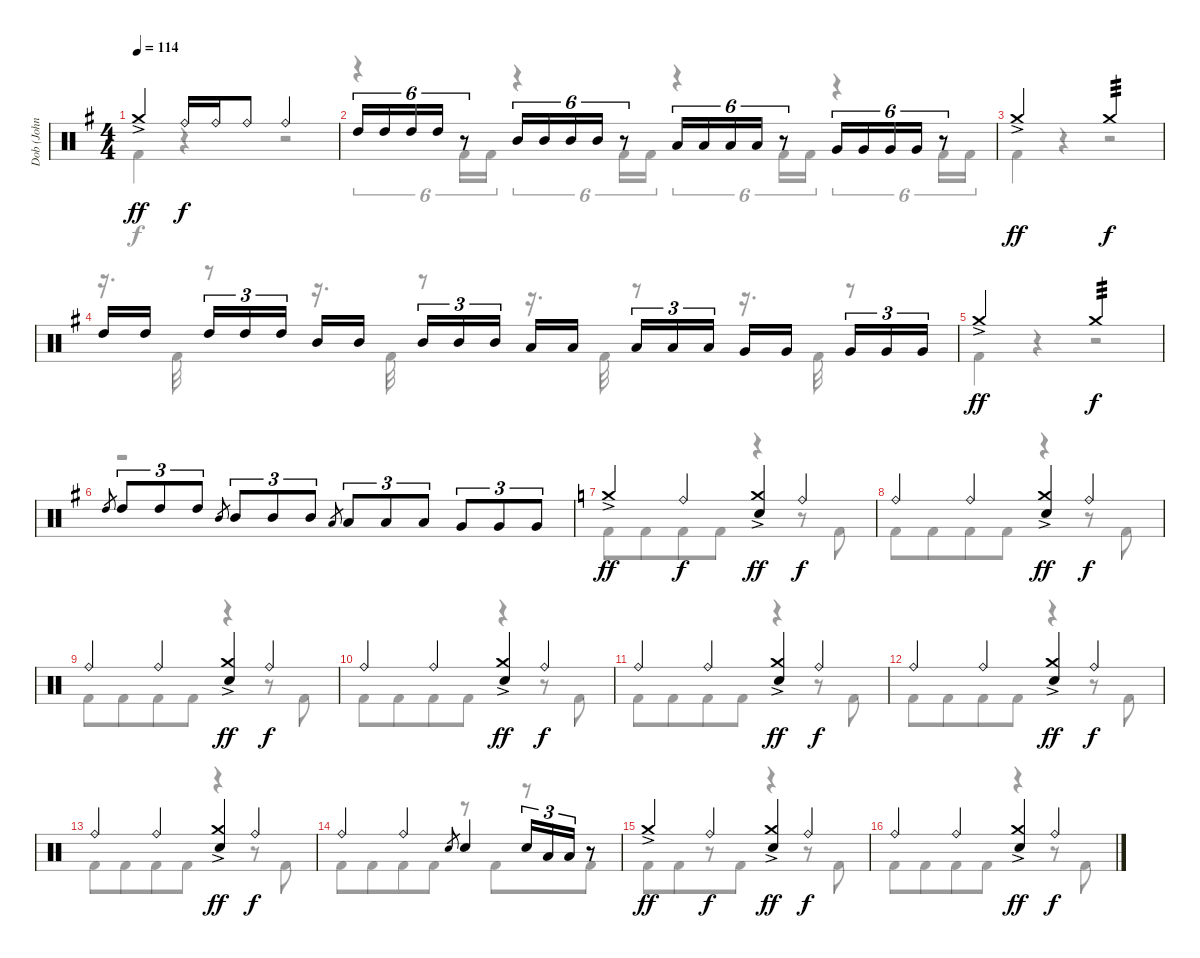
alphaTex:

\track ("Dob (John Macaluso)" "Dob (John ") {instrument percussion}
\staff {score}
\articulation defaults
\voice
\ts (4 4)
\tempo 114
\clef neutral
\ks g "Crash medium (hit)"{ac}.4{dy ff} "Ride (bell)".16{dy f} "Ride (bell)".16 "Ride (bell)".8 "Ride (bell)".2
|
"High Tom (hit)".16{tu (6 4)} "High Tom (hit)".16{tu (6 4)} "High Tom (hit)".16{tu (6 4)} "High Tom (hit)".16{tu (6 4)} r.8{tu (6 4)} "Mid Tom (hit)".16{tu (6 4)} "Mid Tom (hit)".16{tu (6 4)} "Mid Tom (hit)".16{tu (6 4)} "Mid Tom (hit)".16{tu (6 4)} r.8{tu (6 4)} "Low Tom (hit)".16{tu (6 4)} "Low Tom (hit)".16{tu (6 4)} "Low Tom (hit)".16{tu (6 4)} "Low Tom (hit)".16{tu (6 4)} r.8{tu (6 4)} "Very Low Tom (hit)".16{tu (6 4)} "Very Low Tom (hit)".16{tu (6 4)} "Very Low Tom (hit)".16{tu (6 4)} "Very Low Tom (hit)".16{tu (6 4)} r.8{tu (6 4)} |
"Crash medium (hit)"{ac}.2{dy ff} "Crash medium (hit)".2{tp 3 dy f} |
"High Tom (hit)".16 "High Tom (hit)".16{beam splitsecondary} "High Tom (hit)".16{tu (3 2)} "High Tom (hit)".16{tu (3 2)} "High Tom (hit)".16{tu (3 2)} "Mid Tom (hit)".16 "Mid Tom (hit)".16{beam splitsecondary} "Mid Tom (hit)".16{tu (3 2)} "Mid Tom (hit)".16{tu (3 2)} "Mid Tom (hit)".16{tu (3 2)} "Low Tom (hit)".16 "Low Tom (hit)".16{beam splitsecondary} "Low Tom (hit)".16{tu (3 2)} "Low Tom (hit)".16{tu (3 2)} "Low Tom (hit)".16{tu (3 2)} "Very Low Tom (hit)".16 "Very Low Tom (hit)".16{beam splitsecondary} "Very Low Tom (hit)".16{tu (3 2)} "Very Low Tom (hit)".16{tu (3 2)} "Very Low Tom (hit)".16{tu (3 2)} |
"Crash medium (hit)"{ac}.2{dy ff} "Crash medium (hit)".2{tp 3 dy f} |
"High Tom (hit)".8{gr} "High Tom (hit)".8{tu (3 2)} "High Tom (hit)".8{tu (3 2)} "High Tom (hit)".8{tu (3 2)} "Mid Tom (hit)".8{gr} "Mid Tom (hit)".8{tu (3 2)} "Mid Tom (hit)".8{tu (3 2)} "Mid Tom (hit)".8{tu (3 2)} "Low Tom (hit)".8{gr} "Low Tom (hit)".8{tu (3 2)} "Low Tom (hit)".8{tu (3 2)} "Low Tom (hit)".8{tu (3 2)} "Very Low Tom (hit)".8{tu (3 2)} "Very Low Tom (hit)".8{tu (3 2)} "Very Low Tom (hit)".8{tu (3 2)} |
\ks c "Crash medium (hit)"{ac}.4{dy ff} "Ride (bell)".4{dy f}
("Crash medium (hit)"{ac} "Electric Snare (hit)").4{dy ff} "Ride (bell)".4{dy f} |
"Ride (bell)".4 "Ride (bell)".4 ("Crash medium (hit)"{ac} "Electric Snare (hit)").4{dy ff} "Ride (bell)".4{dy f} |
"Ride (bell)".4 "Ride (bell)".4 ("Crash medium (hit)"{ac} "Electric Snare (hit)").4{dy ff} "Ride (bell)".4{dy f} |
"Ride (bell)".4 "Ride (bell)".4 ("Crash medium (hit)"{ac} "Electric Snare (hit)").4{dy ff} "Ride (bell)".4{dy f} |
"Ride (bell)".4 "Ride (bell)".4 ("Crash medium (hit)"{ac} "Electric Snare (hit)").4{dy ff} "Ride (bell)".4{dy f} |
"Ride (bell)".4 "Ride (bell)".4 ("Crash medium (hit)"{ac} "Electric Snare (hit)").4{dy ff} "Ride (bell)".4{dy f} |
"Ride (bell)".4 "Ride (bell)".4 ("Crash medium (hit)"{ac} "Electric Snare (hit)").4{dy ff} "Ride (bell)".4{dy f} |
"Ride (bell)".4 "Ride (bell)".4 "Electric Snare (hit)".8{gr} "Electric Snare (hit)".4 "Electric Snare (hit)".16{tu (3 2)} "Low Tom (hit)".16{tu (3 2)} "Low Tom (hit)".16{tu (3 2)} r.8 |
"Crash medium (hit)"{ac}.4{dy ff} "Ride (bell)".4{dy f} ("Crash medium (hit)"{ac} "Electric Snare (hit)").4{dy ff} "Ride (bell)".4{dy f} |
"Ride (bell)".4 "Ride (bell)".4 ("Crash medium (hit)"{ac} "Electric Snare (hit)").4{dy ff} "Ride (bell)".4{dy f}
\voice
\clef neutral
\ottava regular
\simile none
\ks g "Kick (hit) 2".4{dy f}
r.4 r.2 |
r.4{tu (6 4)} "Kick (hit) 2".16{tu (6 4)} "Kick (hit) 2".16{tu (6 4)} r.4{tu (6 4)} "Kick (hit) 2".16{tu (6 4)} "Kick (hit) 2".16{tu (6 4)} r.4{tu (6 4)} "Kick (hit) 2".16{tu (6 4)} "Kick (hit) 2".16{tu (6 4)} r.4{tu (6 4)} "Kick (hit) 2".16{tu (6 4)} "Kick (hit) 2".16{tu (6 4)} |
"Kick (hit) 2".4 r.4 r.2 |
r.16{d} "Kick (hit) 2".32 r.8 r.16{d} "Kick (hit) 2".32 r.8 r.16{d} "Kick (hit) 2".32 r.8 r.16{d} "Kick (hit) 2".32 r.8 |
"Kick (hit) 2".4 r.4 r.2 |
r.1 |
\ks c "Kick (hit) 2".8 "Kick (hit) 2".8{beam merge} "Kick (hit) 2".8 "Kick (hit) 2".8
r.4 r.8 "Kick (hit) 2".8 |
"Kick (hit) 2".8 "Kick (hit) 2".8{beam merge} "Kick (hit) 2".8 "Kick (hit) 2".8 r.4 r.8 "Kick (hit) 2".8 |
"Kick (hit) 2".8 "Kick (hit) 2".8{beam merge} "Kick (hit) 2".8 "Kick (hit) 2".8 r.4 r.8 "Kick (hit) 2".8 |
"Kick (hit) 2".8 "Kick (hit) 2".8{beam merge} "Kick (hit) 2".8 "Kick (hit) 2".8 r.4 r.8 "Kick (hit) 2".8 |
"Kick (hit) 2".8 "Kick (hit) 2".8{beam merge} "Kick (hit) 2".8 "Kick (hit) 2".8 r.4 r.8 "Kick (hit) 2".8 |
"Kick (hit) 2".8 "Kick (hit) 2".8{beam merge} "Kick (hit) 2".8 "Kick (hit) 2".8 r.4 r.8 "Kick (hit) 2".8 |
"Kick (hit) 2".8 "Kick (hit) 2".8{beam merge} "Kick (hit) 2".8 "Kick (hit) 2".8 r.4 r.8 "Kick (hit) 2".8 |
"Kick (hit) 2".8 "Kick (hit) 2".8{beam merge} "Kick (hit) 2".8 "Kick (hit) 2".8 r.8 "Kick (hit) 2".8{beam merge} r.8 "Kick (hit) 2".8 |
"Kick (hit) 2".8 "Kick (hit) 2".8{beam merge} r.8 "Kick (hit) 2".8 r.4 r.8 "Kick (hit) 2".8 |
"Kick (hit) 2".8 "Kick (hit) 2".8{beam merge} "Kick (hit) 2".8 "Kick (hit) 2".8 r.4 r.8 "Kick (hit) 2".8
